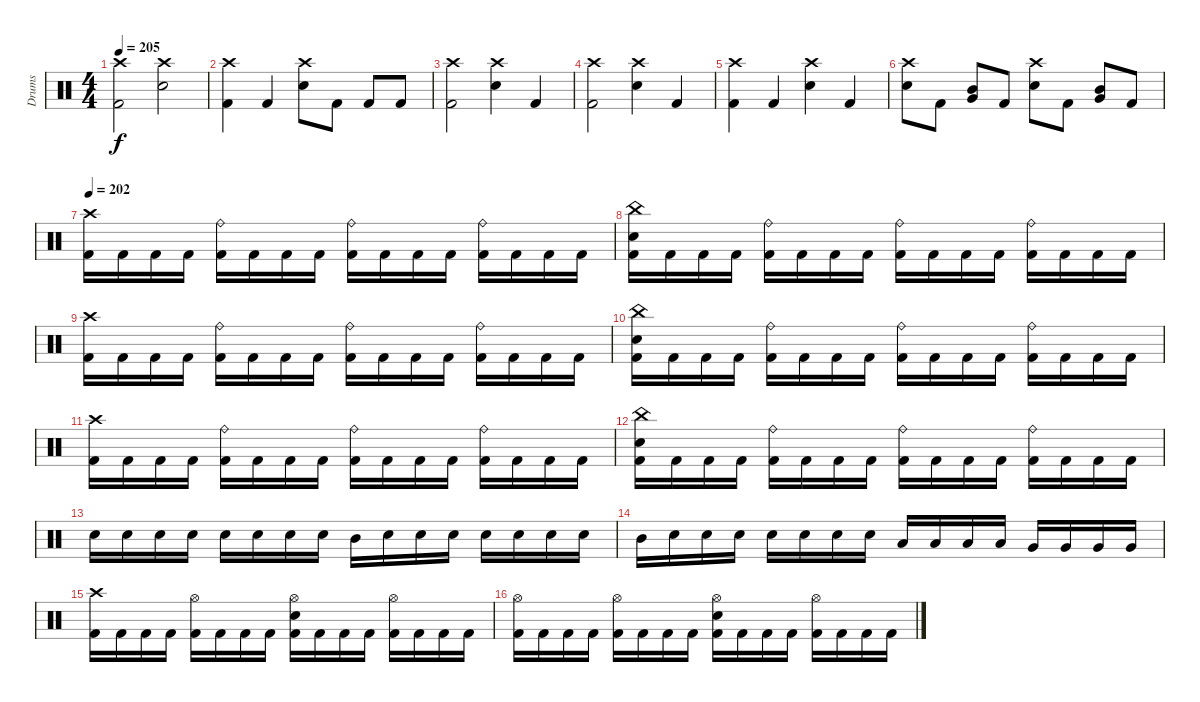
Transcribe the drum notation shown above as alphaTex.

\track ("Drums" "Drums") {instrument percussion bank 169}
\staff {score}
\articulation defaults
\ts (4 4)
\tempo 205
\clef neutral
\ks c
("Crash high (hit)" "Kick (hit) 2").2{dy f} ("Crash high (hit)" "Snare (hit) 2").2 |
("Crash high (hit)" "Kick (hit) 2").4 "Kick (hit) 2".4 ("Crash high (hit)" "Snare (hit) 2").8 "Kick (hit) 2".8 "Kick (hit) 2".8 "Kick (hit) 2".8 |
("Crash high (hit)" "Kick (hit) 2").2 ("Crash high (hit)" "Snare (hit) 2").4 "Kick (hit) 2".4 |
("Crash high (hit)" "Kick (hit) 2").2 ("Crash high (hit)" "Snare (hit) 2").4 "Kick (hit) 2".4 |
("Crash high (hit)" "Kick (hit) 2").4 "Kick (hit) 2".4 ("Crash high (hit)" "Snare (hit) 2").4 "Kick (hit) 2".4 |
("Crash high (hit)" "Snare (hit) 2").8 "Kick (hit) 2".8 ("Mid Tom (hit)" "Very Low Tom (hit)").8 "Kick (hit) 2".8 ("Crash high (hit)" "Snare (hit) 2").8 "Kick (hit) 2".8 ("Mid Tom (hit)" "Very Low Tom (hit)").8 "Kick (hit) 2".8 |
\tempo 202
("Crash high (hit)" "Kick (hit) 2").16 "Kick (hit) 2".16 "Kick (hit) 2".16 "Kick (hit) 2".16 ("Ride (bell)" "Kick (hit) 2").16 "Kick (hit) 2".16 "Kick (hit) 2".16 "Kick (hit) 2".16 ("Ride (bell)" "Kick (hit) 2").16 "Kick (hit) 2".16 "Kick (hit) 2".16 "Kick (hit) 2".16 ("Ride (bell)" "Kick (hit) 2").16 "Kick (hit) 2".16 "Kick (hit) 2".16 "Kick (hit) 2".16 |
("China (hit)" "Snare (hit) 2" "Kick (hit) 2").16 "Kick (hit) 2".16 "Kick (hit) 2".16 "Kick (hit) 2".16 ("Ride (bell)" "Kick (hit) 2").16 "Kick (hit) 2".16 "Kick (hit) 2".16 "Kick (hit) 2".16 ("Ride (bell)" "Kick (hit) 2").16 "Kick (hit) 2".16 "Kick (hit) 2".16 "Kick (hit) 2".16 ("Ride (bell)" "Kick (hit) 2").16 "Kick (hit) 2".16 "Kick (hit) 2".16 "Kick (hit) 2".16 |
("Crash high (hit)" "Kick (hit) 2").16 "Kick (hit) 2".16 "Kick (hit) 2".16 "Kick (hit) 2".16 ("Ride (bell)" "Kick (hit) 2").16 "Kick (hit) 2".16 "Kick (hit) 2".16 "Kick (hit) 2".16 ("Ride (bell)" "Kick (hit) 2").16 "Kick (hit) 2".16 "Kick (hit) 2".16 "Kick (hit) 2".16 ("Ride (bell)" "Kick (hit) 2").16 "Kick (hit) 2".16 "Kick (hit) 2".16 "Kick (hit) 2".16 |
("China (hit)" "Snare (hit) 2" "Kick (hit) 2").16 "Kick (hit) 2".16 "Kick (hit) 2".16 "Kick (hit) 2".16 ("Ride (bell)" "Kick (hit) 2").16 "Kick (hit) 2".16 "Kick (hit) 2".16 "Kick (hit) 2".16 ("Ride (bell)" "Kick (hit) 2").16 "Kick (hit) 2".16 "Kick (hit) 2".16 "Kick (hit) 2".16 ("Ride (bell)" "Kick (hit) 2").16 "Kick (hit) 2".16 "Kick (hit) 2".16 "Kick (hit) 2".16 |
("Crash high (hit)" "Kick (hit) 2").16 "Kick (hit) 2".16 "Kick (hit) 2".16 "Kick (hit) 2".16 ("Ride (bell)" "Kick (hit) 2").16 "Kick (hit) 2".16 "Kick (hit) 2".16 "Kick (hit) 2".16 ("Ride (bell)" "Kick (hit) 2").16 "Kick (hit) 2".16 "Kick (hit) 2".16 "Kick (hit) 2".16 ("Ride (bell)" "Kick (hit) 2").16 "Kick (hit) 2".16 "Kick (hit) 2".16 "Kick (hit) 2".16 |
("China (hit)" "Snare (hit) 2" "Kick (hit) 2").16 "Kick (hit) 2".16 "Kick (hit) 2".16 "Kick (hit) 2".16 ("Ride (bell)" "Kick (hit) 2").16 "Kick (hit) 2".16 "Kick (hit) 2".16 "Kick (hit) 2".16 ("Ride (bell)" "Kick (hit) 2").16 "Kick (hit) 2".16 "Kick (hit) 2".16 "Kick (hit) 2".16 ("Ride (bell)" "Kick (hit) 2").16 "Kick (hit) 2".16 "Kick (hit) 2".16 "Kick (hit) 2".16 |
"Snare (hit) 2".16 "Snare (hit) 2".16 "Snare (hit) 2".16 "Snare (hit) 2".16 "Snare (hit) 2".16 "Snare (hit) 2".16 "Snare (hit) 2".16 "Snare (hit) 2".16 "Mid Tom (hit)".16 "Snare (hit) 2".16 "Snare (hit) 2".16 "Snare (hit) 2".16 "Snare (hit) 2".16 "Snare (hit) 2".16 "Snare (hit) 2".16 "Snare (hit) 2".16 |
"Mid Tom (hit)".16 "Snare (hit) 2".16 "Snare (hit) 2".16 "Snare (hit) 2".16 "Snare (hit) 2".16 "Snare (hit) 2".16 "Snare (hit) 2".16 "Snare (hit) 2".16 "Low Tom (hit)".16 "Low Tom (hit)".16 "Low Tom (hit)".16 "Low Tom (hit)".16 "Very Low Tom (hit)".16 "Very Low Tom (hit)".16 "Very Low Tom (hit)".16 "Very Low Tom (hit)".16 |
("Crash high (hit)" "Kick (hit) 2").16 "Kick (hit) 2".16 "Kick (hit) 2".16 "Kick (hit) 2".16 ("Hi-Hat (open)" "Kick (hit) 2").16 "Kick (hit) 2".16 "Kick (hit) 2".16 "Kick (hit) 2".16 ("Hi-Hat (open)" "Snare (hit) 2" "Kick (hit) 2").16 "Kick (hit) 2".16 "Kick (hit) 2".16 "Kick (hit) 2".16 ("Hi-Hat (open)" "Kick (hit) 2").16 "Kick (hit) 2".16 "Kick (hit) 2".16 "Kick (hit) 2".16 |
("Hi-Hat (open)" "Kick (hit) 2").16 "Kick (hit) 2".16 "Kick (hit) 2".16 "Kick (hit) 2".16 ("Hi-Hat (open)" "Kick (hit) 2").16 "Kick (hit) 2".16 "Kick (hit) 2".16 "Kick (hit) 2".16 ("Hi-Hat (open)" "Snare (hit) 2" "Kick (hit) 2").16 "Kick (hit) 2".16 "Kick (hit) 2".16 "Kick (hit) 2".16 ("Hi-Hat (open)" "Kick (hit) 2").16 "Kick (hit) 2".16 "Kick (hit) 2".16 "Kick (hit) 2".16
